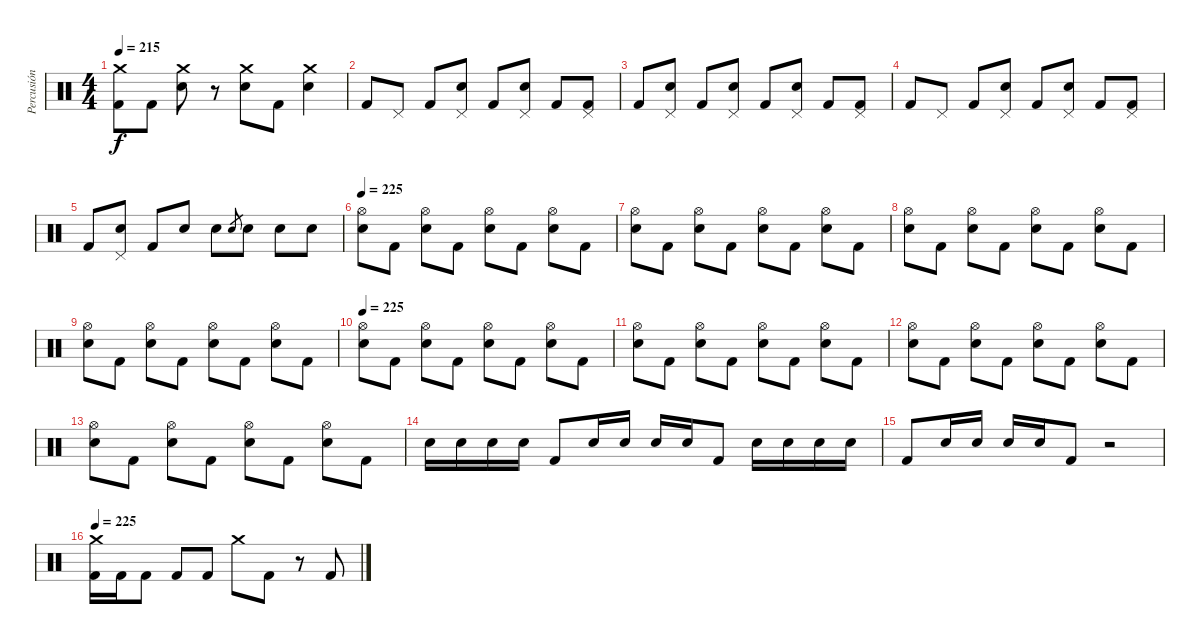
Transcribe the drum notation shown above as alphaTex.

\track ("Percusión" "Percusión") {instrument percussion}
\staff {score}
\articulation defaults
\ts (4 4)
\tempo 215
\clef neutral
\ks c
("Crash medium (hit)" "Kick (hit) 2").8{dy f} "Kick (hit) 2".8 ("Crash medium (hit)" "Electric Snare (hit)").8 r.8 ("Crash medium (hit)" "Electric Snare (hit)").8 "Kick (hit) 2".8 ("Crash medium (hit)" "Electric Snare (hit)").4 |
"Kick (hit) 2".8 "Pedal Hi-Hat (hit)".8 "Kick (hit) 2".8 ("Pedal Hi-Hat (hit)" "Electric Snare (hit)").8 "Kick (hit) 2".8 ("Pedal Hi-Hat (hit)" "Electric Snare (hit)").8 "Kick (hit) 2".8 ("Pedal Hi-Hat (hit)" "Kick (hit) 2").8 |
"Kick (hit) 2".8 ("Pedal Hi-Hat (hit)" "Electric Snare (hit)").8 "Kick (hit) 2".8 ("Pedal Hi-Hat (hit)" "Electric Snare (hit)").8 "Kick (hit) 2".8 ("Pedal Hi-Hat (hit)" "Electric Snare (hit)").8 "Kick (hit) 2".8 ("Pedal Hi-Hat (hit)" "Kick (hit) 2").8 |
"Kick (hit) 2".8 "Pedal Hi-Hat (hit)".8 "Kick (hit) 2".8 ("Pedal Hi-Hat (hit)" "Electric Snare (hit)").8 "Kick (hit) 2".8 ("Pedal Hi-Hat (hit)" "Electric Snare (hit)").8 "Kick (hit) 2".8 ("Pedal Hi-Hat (hit)" "Kick (hit) 2").8 |
"Kick (hit) 2".8 ("Pedal Hi-Hat (hit)" "Electric Snare (hit)").8 "Kick (hit) 2".8 "Electric Snare (hit)".8 "Electric Snare (hit)".8 "Electric Snare (hit)".8{gr} "Electric Snare (hit)".8 "Electric Snare (hit)".8 "Electric Snare (hit)".8 |
\tempo 225
("Hi-Hat (open)" "Electric Snare (hit)").8 "Kick (hit) 2".8 ("Hi-Hat (open)" "Electric Snare (hit)").8 "Kick (hit) 2".8 ("Hi-Hat (open)" "Electric Snare (hit)").8 "Kick (hit) 2".8 ("Hi-Hat (open)" "Electric Snare (hit)").8 "Kick (hit) 2".8 |
("Hi-Hat (open)" "Electric Snare (hit)").8 "Kick (hit) 2".8 ("Hi-Hat (open)" "Electric Snare (hit)").8 "Kick (hit) 2".8 ("Hi-Hat (open)" "Electric Snare (hit)").8 "Kick (hit) 2".8 ("Hi-Hat (open)" "Electric Snare (hit)").8 "Kick (hit) 2".8 |
("Hi-Hat (open)" "Electric Snare (hit)").8 "Kick (hit) 2".8 ("Hi-Hat (open)" "Electric Snare (hit)").8 "Kick (hit) 2".8 ("Hi-Hat (open)" "Electric Snare (hit)").8 "Kick (hit) 2".8 ("Hi-Hat (open)" "Electric Snare (hit)").8 "Kick (hit) 2".8 |
("Hi-Hat (open)" "Electric Snare (hit)").8 "Kick (hit) 2".8 ("Hi-Hat (open)" "Electric Snare (hit)").8 "Kick (hit) 2".8 ("Hi-Hat (open)" "Electric Snare (hit)").8 "Kick (hit) 2".8 ("Hi-Hat (open)" "Electric Snare (hit)").8 "Kick (hit) 2".8 |
\tempo 225
("Hi-Hat (open)" "Electric Snare (hit)").8 "Kick (hit) 2".8 ("Hi-Hat (open)" "Electric Snare (hit)").8 "Kick (hit) 2".8 ("Hi-Hat (open)" "Electric Snare (hit)").8 "Kick (hit) 2".8 ("Hi-Hat (open)" "Electric Snare (hit)").8 "Kick (hit) 2".8 |
("Hi-Hat (open)" "Electric Snare (hit)").8 "Kick (hit) 2".8 ("Hi-Hat (open)" "Electric Snare (hit)").8 "Kick (hit) 2".8 ("Hi-Hat (open)" "Electric Snare (hit)").8 "Kick (hit) 2".8 ("Hi-Hat (open)" "Electric Snare (hit)").8 "Kick (hit) 2".8 |
("Hi-Hat (open)" "Electric Snare (hit)").8 "Kick (hit) 2".8 ("Hi-Hat (open)" "Electric Snare (hit)").8 "Kick (hit) 2".8 ("Hi-Hat (open)" "Electric Snare (hit)").8 "Kick (hit) 2".8 ("Hi-Hat (open)" "Electric Snare (hit)").8 "Kick (hit) 2".8 |
("Hi-Hat (open)" "Electric Snare (hit)").8 "Kick (hit) 2".8 ("Hi-Hat (open)" "Electric Snare (hit)").8 "Kick (hit) 2".8 ("Hi-Hat (open)" "Electric Snare (hit)").8 "Kick (hit) 2".8 ("Hi-Hat (open)" "Electric Snare (hit)").8 "Kick (hit) 2".8 |
"Electric Snare (hit)".16 "Electric Snare (hit)".16 "Electric Snare (hit)".16 "Electric Snare (hit)".16 "Kick (hit) 2".8 "Electric Snare (hit)".16 "Electric Snare (hit)".16 "Electric Snare (hit)".16 "Electric Snare (hit)".16 "Kick (hit) 2".8 "Electric Snare (hit)".16 "Electric Snare (hit)".16 "Electric Snare (hit)".16 "Electric Snare (hit)".16 |
"Kick (hit) 2".8 "Electric Snare (hit)".16 "Electric Snare (hit)".16 "Electric Snare (hit)".16 "Electric Snare (hit)".16 "Kick (hit) 2".8 r.2 |
\tempo 225
("Crash medium (hit)" "Kick (hit) 2").16 "Kick (hit) 2".16 "Kick (hit) 2".8 "Kick (hit) 2".8 "Kick (hit) 2".8 "Crash medium (hit)".8 "Kick (hit) 2".8 r.8 "Kick (hit) 2".8
